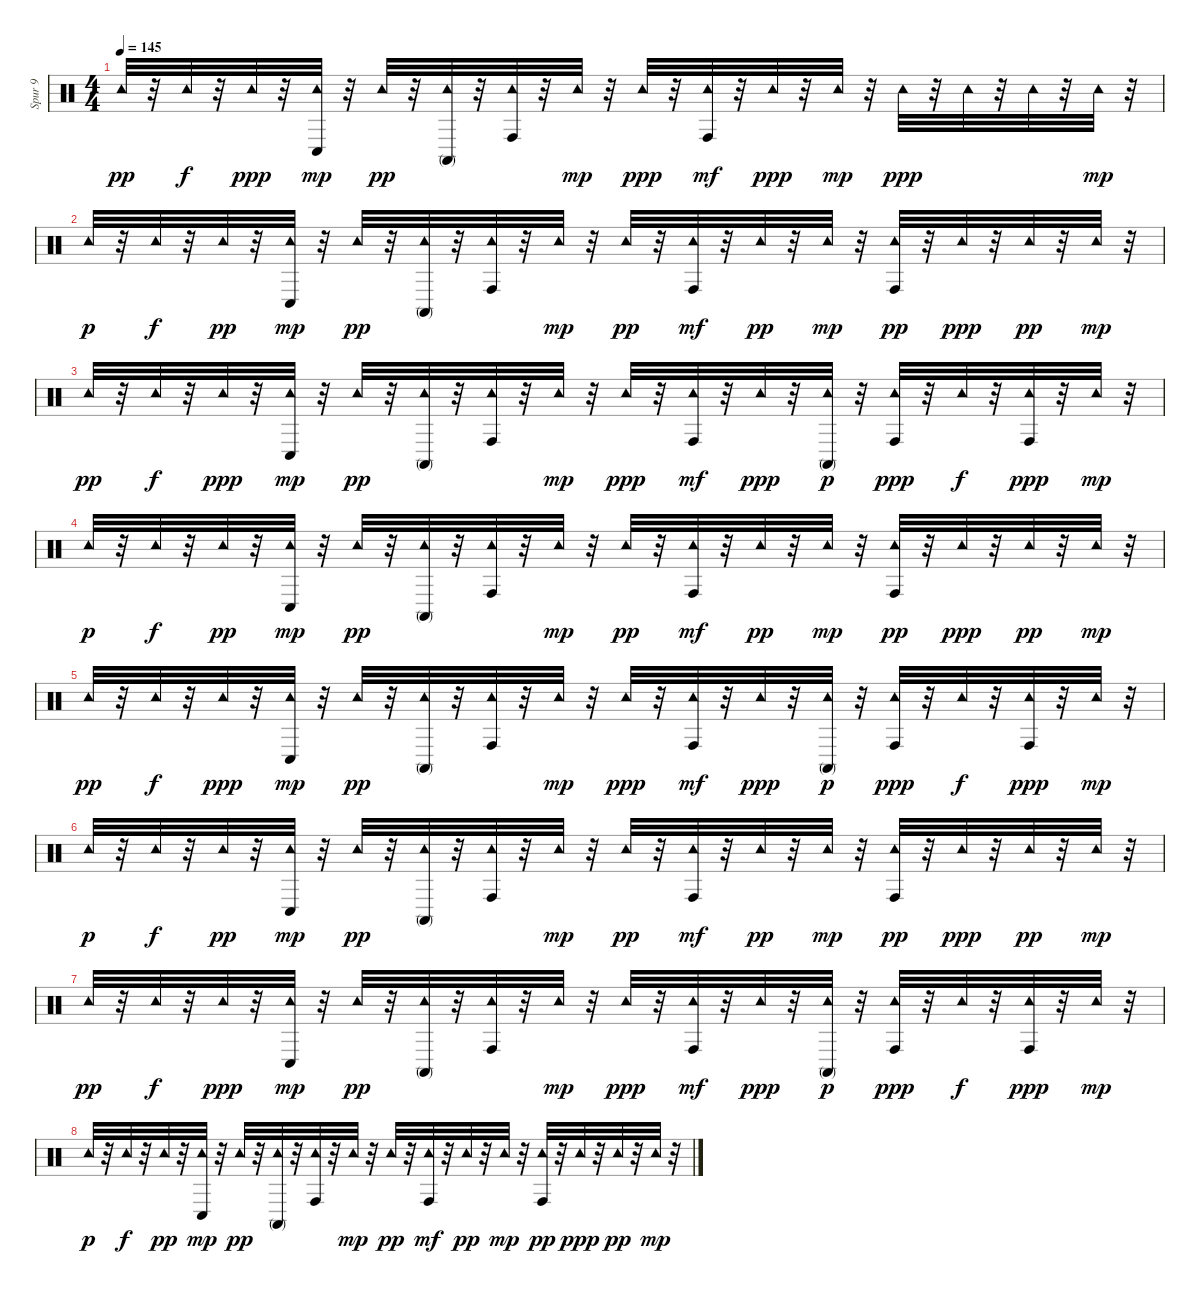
\track ("Spur 9" "Spur 9") {instrument percussion}
\staff {score}
\articulation defaults
\ts (4 4)
\tempo 145
\clef neutral
\ks c "Tambourine (hit)".32{dy pp}
r.32 "Tambourine (hit)".32{dy f} r.32 "Tambourine (hit)".32{dy ppp} r.32 ("Tambourine (hit)" "Conga low (hit)").32{dy mp} r.32 "Tambourine (hit)".32{dy pp} r.32 ("Tambourine (hit)" "Conga high (mute)").32 r.32 ("Conga high (hit)" "Tambourine (hit)").32 r.32 "Tambourine (hit)".32{dy mp} r.32 "Tambourine (hit)".32{dy ppp} r.32 ("Tambourine (hit)" "Conga high (hit)").32{dy mf} r.32 "Tambourine (hit)".32{dy ppp} r.32 "Tambourine (hit)".32{dy mp} r.32 "Tambourine (hit)".32{dy ppp} r.32 "Tambourine (hit)".32 r.32 "Tambourine (hit)".32 r.32 "Tambourine (hit)".32{dy mp} r.32 |
"Tambourine (hit)".32{dy p} r.32 "Tambourine (hit)".32{dy f} r.32 "Tambourine (hit)".32{dy pp} r.32 ("Tambourine (hit)" "Conga low (hit)").32{dy mp} r.32 "Tambourine (hit)".32{dy pp} r.32 ("Tambourine (hit)" "Conga high (mute)").32 r.32 ("Conga high (hit)" "Tambourine (hit)").32 r.32 "Tambourine (hit)".32{dy mp} r.32 "Tambourine (hit)".32{dy pp} r.32 ("Tambourine (hit)" "Conga high (hit)").32{dy mf} r.32 "Tambourine (hit)".32{dy pp} r.32 "Tambourine (hit)".32{dy mp} r.32 ("Conga high (hit)" "Tambourine (hit)").32{dy pp} r.32 "Tambourine (hit)".32{dy ppp} r.32 "Tambourine (hit)".32{dy pp} r.32 "Tambourine (hit)".32{dy mp} r.32 |
"Tambourine (hit)".32{dy pp} r.32 "Tambourine (hit)".32{dy f} r.32 "Tambourine (hit)".32{dy ppp} r.32 ("Tambourine (hit)" "Conga low (hit)").32{dy mp} r.32 "Tambourine (hit)".32{dy pp} r.32 ("Tambourine (hit)" "Conga high (mute)").32 r.32 ("Conga high (hit)" "Tambourine (hit)").32 r.32 "Tambourine (hit)".32{dy mp} r.32 "Tambourine (hit)".32{dy ppp} r.32 ("Tambourine (hit)" "Conga high (hit)").32{dy mf} r.32 "Tambourine (hit)".32{dy ppp} r.32 ("Tambourine (hit)" "Conga high (mute)").32{dy p} r.32 ("Conga high (hit)" "Tambourine (hit)").32{dy ppp} r.32 "Tambourine (hit)".32{dy f} r.32 ("Conga high (hit)" "Tambourine (hit)").32{dy ppp} r.32 "Tambourine (hit)".32{dy mp} r.32 |
"Tambourine (hit)".32{dy p} r.32 "Tambourine (hit)".32{dy f} r.32 "Tambourine (hit)".32{dy pp} r.32 ("Tambourine (hit)" "Conga low (hit)").32{dy mp} r.32 "Tambourine (hit)".32{dy pp} r.32 ("Tambourine (hit)" "Conga high (mute)").32 r.32 ("Conga high (hit)" "Tambourine (hit)").32 r.32 "Tambourine (hit)".32{dy mp} r.32 "Tambourine (hit)".32{dy pp} r.32 ("Tambourine (hit)" "Conga high (hit)").32{dy mf} r.32 "Tambourine (hit)".32{dy pp} r.32 "Tambourine (hit)".32{dy mp} r.32 ("Conga high (hit)" "Tambourine (hit)").32{dy pp} r.32 "Tambourine (hit)".32{dy ppp} r.32 "Tambourine (hit)".32{dy pp} r.32 "Tambourine (hit)".32{dy mp} r.32 |
"Tambourine (hit)".32{dy pp} r.32 "Tambourine (hit)".32{dy f} r.32 "Tambourine (hit)".32{dy ppp} r.32 ("Tambourine (hit)" "Conga low (hit)").32{dy mp} r.32 "Tambourine (hit)".32{dy pp} r.32 ("Tambourine (hit)" "Conga high (mute)").32 r.32 ("Conga high (hit)" "Tambourine (hit)").32 r.32 "Tambourine (hit)".32{dy mp} r.32 "Tambourine (hit)".32{dy ppp} r.32 ("Tambourine (hit)" "Conga high (hit)").32{dy mf} r.32 "Tambourine (hit)".32{dy ppp} r.32 ("Tambourine (hit)" "Conga high (mute)").32{dy p} r.32 ("Conga high (hit)" "Tambourine (hit)").32{dy ppp} r.32 "Tambourine (hit)".32{dy f} r.32 ("Conga high (hit)" "Tambourine (hit)").32{dy ppp} r.32 "Tambourine (hit)".32{dy mp} r.32 |
"Tambourine (hit)".32{dy p} r.32 "Tambourine (hit)".32{dy f} r.32 "Tambourine (hit)".32{dy pp} r.32 ("Tambourine (hit)" "Conga low (hit)").32{dy mp} r.32 "Tambourine (hit)".32{dy pp} r.32 ("Tambourine (hit)" "Conga high (mute)").32 r.32 ("Conga high (hit)" "Tambourine (hit)").32 r.32 "Tambourine (hit)".32{dy mp} r.32 "Tambourine (hit)".32{dy pp} r.32 ("Tambourine (hit)" "Conga high (hit)").32{dy mf} r.32 "Tambourine (hit)".32{dy pp} r.32 "Tambourine (hit)".32{dy mp} r.32 ("Conga high (hit)" "Tambourine (hit)").32{dy pp} r.32 "Tambourine (hit)".32{dy ppp} r.32 "Tambourine (hit)".32{dy pp} r.32 "Tambourine (hit)".32{dy mp} r.32 |
"Tambourine (hit)".32{dy pp} r.32 "Tambourine (hit)".32{dy f} r.32 "Tambourine (hit)".32{dy ppp} r.32 ("Tambourine (hit)" "Conga low (hit)").32{dy mp} r.32 "Tambourine (hit)".32{dy pp} r.32 ("Tambourine (hit)" "Conga high (mute)").32 r.32 ("Conga high (hit)" "Tambourine (hit)").32 r.32 "Tambourine (hit)".32{dy mp} r.32 "Tambourine (hit)".32{dy ppp} r.32 ("Tambourine (hit)" "Conga high (hit)").32{dy mf} r.32 "Tambourine (hit)".32{dy ppp} r.32 ("Tambourine (hit)" "Conga high (mute)").32{dy p} r.32 ("Conga high (hit)" "Tambourine (hit)").32{dy ppp} r.32 "Tambourine (hit)".32{dy f} r.32 ("Conga high (hit)" "Tambourine (hit)").32{dy ppp} r.32 "Tambourine (hit)".32{dy mp} r.32 |
"Tambourine (hit)".32{dy p} r.32 "Tambourine (hit)".32{dy f} r.32 "Tambourine (hit)".32{dy pp} r.32 ("Tambourine (hit)" "Conga low (hit)").32{dy mp} r.32 "Tambourine (hit)".32{dy pp} r.32 ("Tambourine (hit)" "Conga high (mute)").32 r.32 ("Conga high (hit)" "Tambourine (hit)").32 r.32 "Tambourine (hit)".32{dy mp} r.32 "Tambourine (hit)".32{dy pp} r.32 ("Tambourine (hit)" "Conga high (hit)").32{dy mf} r.32 "Tambourine (hit)".32{dy pp} r.32 "Tambourine (hit)".32{dy mp} r.32 ("Conga high (hit)" "Tambourine (hit)").32{dy pp} r.32 "Tambourine (hit)".32{dy ppp} r.32 "Tambourine (hit)".32{dy pp} r.32 "Tambourine (hit)".32{dy mp} r.32
